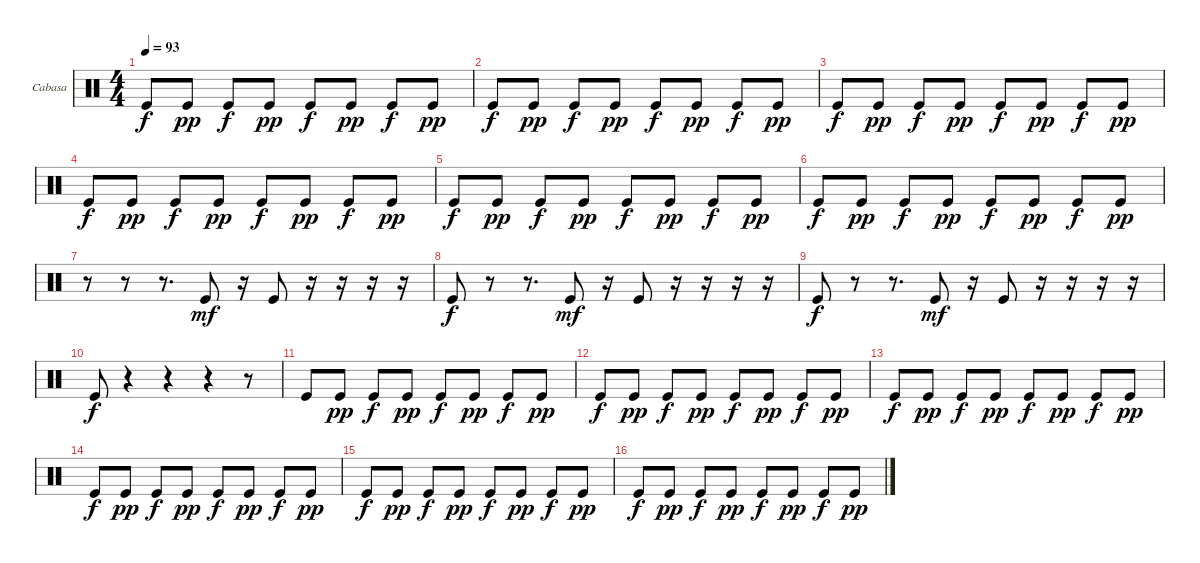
\defaultSystemsLayout 4
\bracketExtendMode groupsimilarinstruments
\firstSystemTrackNameOrientation horizontal
\otherSystemsTrackNameOrientation horizontal
\track ("Cabasa" "Cabasa") {instrument percussion}
\staff {score}
\articulation defaults
\ts (4 4)
\tempo 93
\clef neutral
\ks c "Kick (hit)".8{dy f} "Kick (hit)".8{dy pp} "Kick (hit)".8{dy f} "Kick (hit)".8{dy pp} "Kick (hit)".8{dy f} "Kick (hit)".8{dy pp} "Kick (hit)".8{dy f} "Kick (hit)".8{dy pp}
|
"Kick (hit)".8{dy f} "Kick (hit)".8{dy pp} "Kick (hit)".8{dy f} "Kick (hit)".8{dy pp} "Kick (hit)".8{dy f} "Kick (hit)".8{dy pp} "Kick (hit)".8{dy f} "Kick (hit)".8{dy pp} |
"Kick (hit)".8{dy f} "Kick (hit)".8{dy pp} "Kick (hit)".8{dy f} "Kick (hit)".8{dy pp} "Kick (hit)".8{dy f} "Kick (hit)".8{dy pp} "Kick (hit)".8{dy f} "Kick (hit)".8{dy pp} |
"Kick (hit)".8{dy f} "Kick (hit)".8{dy pp} "Kick (hit)".8{dy f} "Kick (hit)".8{dy pp} "Kick (hit)".8{dy f} "Kick (hit)".8{dy pp} "Kick (hit)".8{dy f} "Kick (hit)".8{dy pp} |
"Kick (hit)".8{dy f} "Kick (hit)".8{dy pp} "Kick (hit)".8{dy f} "Kick (hit)".8{dy pp} "Kick (hit)".8{dy f} "Kick (hit)".8{dy pp} "Kick (hit)".8{dy f} "Kick (hit)".8{dy pp} |
"Kick (hit)".8{dy f} "Kick (hit)".8{dy pp} "Kick (hit)".8{dy f} "Kick (hit)".8{dy pp} "Kick (hit)".8{dy f} "Kick (hit)".8{dy pp} "Kick (hit)".8{dy f} "Kick (hit)".8{dy pp} |
r.8 r.8 r.8{d} "Kick (hit)".8{dy mf} r.16 "Kick (hit)".8 r.16 r.16 r.16 r.16 |
"Kick (hit)".8{dy f} r.8 r.8{d} "Kick (hit)".8{dy mf} r.16 "Kick (hit)".8 r.16 r.16 r.16 r.16 |
"Kick (hit)".8{dy f} r.8 r.8{d} "Kick (hit)".8{dy mf} r.16 "Kick (hit)".8 r.16 r.16 r.16 r.16 |
"Kick (hit)".8{dy f} r.4 r.4 r.4 r.8 |
"Kick (hit)".8 "Kick (hit)".8{dy pp} "Kick (hit)".8{dy f} "Kick (hit)".8{dy pp} "Kick (hit)".8{dy f} "Kick (hit)".8{dy pp} "Kick (hit)".8{dy f} "Kick (hit)".8{dy pp} |
"Kick (hit)".8{dy f} "Kick (hit)".8{dy pp} "Kick (hit)".8{dy f} "Kick (hit)".8{dy pp} "Kick (hit)".8{dy f} "Kick (hit)".8{dy pp} "Kick (hit)".8{dy f} "Kick (hit)".8{dy pp} |
"Kick (hit)".8{dy f} "Kick (hit)".8{dy pp} "Kick (hit)".8{dy f} "Kick (hit)".8{dy pp} "Kick (hit)".8{dy f} "Kick (hit)".8{dy pp} "Kick (hit)".8{dy f} "Kick (hit)".8{dy pp} |
"Kick (hit)".8{dy f} "Kick (hit)".8{dy pp} "Kick (hit)".8{dy f} "Kick (hit)".8{dy pp} "Kick (hit)".8{dy f} "Kick (hit)".8{dy pp} "Kick (hit)".8{dy f} "Kick (hit)".8{dy pp} |
"Kick (hit)".8{dy f} "Kick (hit)".8{dy pp} "Kick (hit)".8{dy f} "Kick (hit)".8{dy pp} "Kick (hit)".8{dy f} "Kick (hit)".8{dy pp} "Kick (hit)".8{dy f} "Kick (hit)".8{dy pp} |
"Kick (hit)".8{dy f} "Kick (hit)".8{dy pp} "Kick (hit)".8{dy f} "Kick (hit)".8{dy pp} "Kick (hit)".8{dy f} "Kick (hit)".8{dy pp} "Kick (hit)".8{dy f} "Kick (hit)".8{dy pp}
